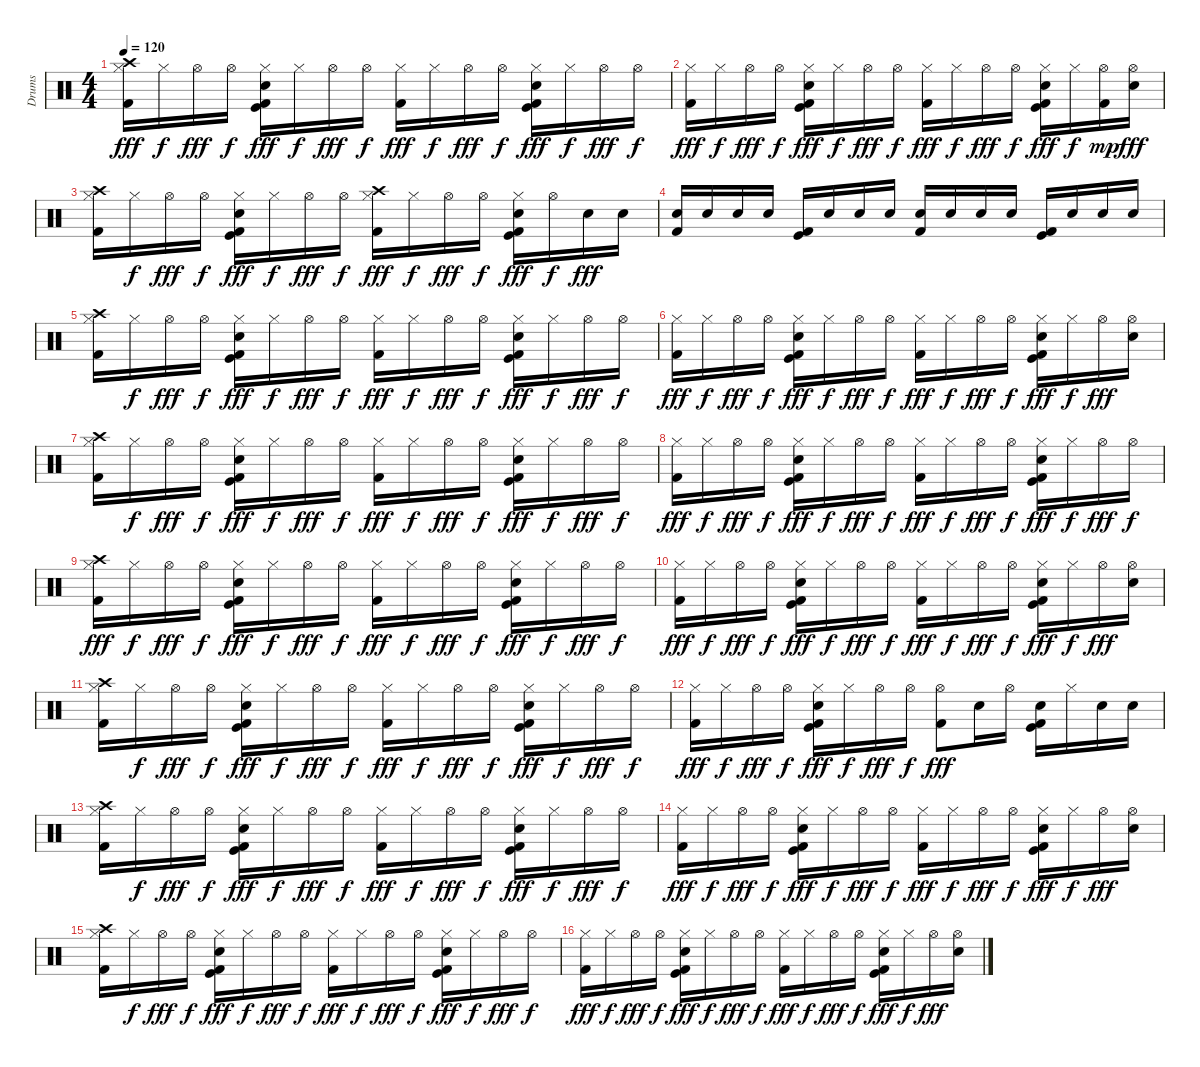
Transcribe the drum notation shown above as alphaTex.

\track ("Drums" "Drums") {instrument percussion}
\staff {score}
\articulation defaults
\ts (4 4)
\tempo 120
\clef neutral
\ks c
("Hi-Hat (closed)" "Crash high (hit)" "Kick (hit) 2").16{dy fff} "Hi-Hat (closed)".16{dy f} "Hi-Hat (open)".16{dy fff} "Hi-Hat (open)".16{dy f} ("Hi-Hat (closed)" "Electric Snare (hit)" "Kick (hit) 2" "Kick (hit)").16{dy fff} "Hi-Hat (closed)".16{dy f} "Hi-Hat (open)".16{dy fff} "Hi-Hat (open)".16{dy f} ("Hi-Hat (closed)" "Kick (hit) 2").16{dy fff} "Hi-Hat (closed)".16{dy f} "Hi-Hat (open)".16{dy fff} "Hi-Hat (open)".16{dy f} ("Hi-Hat (closed)" "Electric Snare (hit)" "Kick (hit)" "Kick (hit) 2").16{dy fff} "Hi-Hat (closed)".16{dy f} "Hi-Hat (open)".16{dy fff} "Hi-Hat (open)".16{dy f} |
("Hi-Hat (closed)" "Kick (hit) 2").16{dy fff} "Hi-Hat (closed)".16{dy f} "Hi-Hat (open)".16{dy fff} "Hi-Hat (open)".16{dy f} ("Hi-Hat (closed)" "Electric Snare (hit)" "Kick (hit) 2" "Kick (hit)").16{dy fff} "Hi-Hat (closed)".16{dy f} "Hi-Hat (open)".16{dy fff} "Hi-Hat (open)".16{dy f} ("Hi-Hat (closed)" "Kick (hit) 2").16{dy fff} "Hi-Hat (closed)".16{dy f} "Hi-Hat (open)".16{dy fff} "Hi-Hat (open)".16{dy f} ("Hi-Hat (closed)" "Electric Snare (hit)" "Kick (hit)" "Kick (hit) 2").16{dy fff} "Hi-Hat (closed)".16{dy f} ("Hi-Hat (open)" "Kick (hit) 2").16{dy mp} ("Hi-Hat (open)" "Electric Snare (hit)").16{dy fff} |
("Hi-Hat (closed)" "Crash high (hit)" "Kick (hit) 2").16 "Hi-Hat (closed)".16{dy f} "Hi-Hat (open)".16{dy fff} "Hi-Hat (open)".16{dy f} ("Hi-Hat (closed)" "Electric Snare (hit)" "Kick (hit) 2" "Kick (hit)").16{dy fff} "Hi-Hat (closed)".16{dy f} "Hi-Hat (open)".16{dy fff} "Hi-Hat (open)".16{dy f} ("Hi-Hat (closed)" "Crash high (hit)" "Kick (hit) 2").16{dy fff} "Hi-Hat (closed)".16{dy f} "Hi-Hat (open)".16{dy fff} "Hi-Hat (open)".16{dy f} ("Hi-Hat (closed)" "Electric Snare (hit)" "Kick (hit) 2" "Kick (hit)").16{dy fff} "Hi-Hat (open)".16{dy f} "Electric Snare (hit)".16{dy fff} "Electric Snare (hit)".16 |
("Electric Snare (hit)" "Kick (hit) 2").16 "Electric Snare (hit)".16 "Electric Snare (hit)".16 "Electric Snare (hit)".16 ("Kick (hit) 2" "Kick (hit)").16 "Electric Snare (hit)".16 "Electric Snare (hit)".16 "Electric Snare (hit)".16 ("Electric Snare (hit)" "Kick (hit) 2").16 "Electric Snare (hit)".16 "Electric Snare (hit)".16 "Electric Snare (hit)".16 ("Kick (hit) 2" "Kick (hit)").16 "Electric Snare (hit)".16 "Electric Snare (hit)".16 "Electric Snare (hit)".16 |
("Hi-Hat (closed)" "Crash high (hit)" "Kick (hit) 2").16 "Hi-Hat (closed)".16{dy f} "Hi-Hat (open)".16{dy fff} "Hi-Hat (open)".16{dy f} ("Hi-Hat (closed)" "Electric Snare (hit)" "Kick (hit)" "Kick (hit) 2").16{dy fff} "Hi-Hat (closed)".16{dy f} "Hi-Hat (open)".16{dy fff} "Hi-Hat (open)".16{dy f} ("Hi-Hat (closed)" "Kick (hit) 2").16{dy fff} "Hi-Hat (closed)".16{dy f} "Hi-Hat (open)".16{dy fff} "Hi-Hat (open)".16{dy f} ("Hi-Hat (closed)" "Electric Snare (hit)" "Kick (hit)" "Kick (hit) 2").16{dy fff} "Hi-Hat (closed)".16{dy f} "Hi-Hat (open)".16{dy fff} "Hi-Hat (open)".16{dy f} |
("Hi-Hat (closed)" "Kick (hit) 2").16{dy fff} "Hi-Hat (closed)".16{dy f} "Hi-Hat (open)".16{dy fff} "Hi-Hat (open)".16{dy f} ("Hi-Hat (closed)" "Electric Snare (hit)" "Kick (hit) 2" "Kick (hit)").16{dy fff} "Hi-Hat (closed)".16{dy f} "Hi-Hat (open)".16{dy fff} "Hi-Hat (open)".16{dy f} ("Hi-Hat (closed)" "Kick (hit) 2").16{dy fff} "Hi-Hat (closed)".16{dy f} "Hi-Hat (open)".16{dy fff} "Hi-Hat (open)".16{dy f} ("Hi-Hat (closed)" "Electric Snare (hit)" "Kick (hit)" "Kick (hit) 2").16{dy fff} "Hi-Hat (closed)".16{dy f} "Hi-Hat (open)".16{dy fff} ("Hi-Hat (open)" "Electric Snare (hit)").16 |
("Hi-Hat (closed)" "Crash high (hit)" "Kick (hit) 2").16 "Hi-Hat (closed)".16{dy f} "Hi-Hat (open)".16{dy fff} "Hi-Hat (open)".16{dy f} ("Hi-Hat (closed)" "Electric Snare (hit)" "Kick (hit)" "Kick (hit) 2").16{dy fff} "Hi-Hat (closed)".16{dy f} "Hi-Hat (open)".16{dy fff} "Hi-Hat (open)".16{dy f} ("Hi-Hat (closed)" "Kick (hit) 2").16{dy fff} "Hi-Hat (closed)".16{dy f} "Hi-Hat (open)".16{dy fff} "Hi-Hat (open)".16{dy f} ("Hi-Hat (closed)" "Electric Snare (hit)" "Kick (hit)" "Kick (hit) 2").16{dy fff} "Hi-Hat (closed)".16{dy f} "Hi-Hat (open)".16{dy fff} "Hi-Hat (open)".16{dy f} |
("Hi-Hat (closed)" "Kick (hit) 2").16{dy fff} "Hi-Hat (closed)".16{dy f} "Hi-Hat (open)".16{dy fff} "Hi-Hat (open)".16{dy f} ("Hi-Hat (closed)" "Electric Snare (hit)" "Kick (hit) 2" "Kick (hit)").16{dy fff} "Hi-Hat (closed)".16{dy f} "Hi-Hat (open)".16{dy fff} "Hi-Hat (open)".16{dy f} ("Hi-Hat (closed)" "Kick (hit) 2").16{dy fff} "Hi-Hat (closed)".16{dy f} "Hi-Hat (open)".16{dy fff} "Hi-Hat (open)".16{dy f} ("Hi-Hat (closed)" "Electric Snare (hit)" "Kick (hit)" "Kick (hit) 2").16{dy fff} "Hi-Hat (closed)".16{dy f} "Hi-Hat (open)".16{dy fff} "Hi-Hat (open)".16{dy f} |
("Hi-Hat (closed)" "Crash high (hit)" "Kick (hit) 2").16{dy fff} "Hi-Hat (closed)".16{dy f} "Hi-Hat (open)".16{dy fff} "Hi-Hat (open)".16{dy f} ("Hi-Hat (closed)" "Electric Snare (hit)" "Kick (hit)" "Kick (hit) 2").16{dy fff} "Hi-Hat (closed)".16{dy f} "Hi-Hat (open)".16{dy fff} "Hi-Hat (open)".16{dy f} ("Hi-Hat (closed)" "Kick (hit) 2").16{dy fff} "Hi-Hat (closed)".16{dy f} "Hi-Hat (open)".16{dy fff} "Hi-Hat (open)".16{dy f} ("Hi-Hat (closed)" "Electric Snare (hit)" "Kick (hit)" "Kick (hit) 2").16{dy fff} "Hi-Hat (closed)".16{dy f} "Hi-Hat (open)".16{dy fff} "Hi-Hat (open)".16{dy f} |
("Hi-Hat (closed)" "Kick (hit) 2").16{dy fff} "Hi-Hat (closed)".16{dy f} "Hi-Hat (open)".16{dy fff} "Hi-Hat (open)".16{dy f} ("Hi-Hat (closed)" "Electric Snare (hit)" "Kick (hit) 2" "Kick (hit)").16{dy fff} "Hi-Hat (closed)".16{dy f} "Hi-Hat (open)".16{dy fff} "Hi-Hat (open)".16{dy f} ("Hi-Hat (closed)" "Kick (hit) 2").16{dy fff} "Hi-Hat (closed)".16{dy f} "Hi-Hat (open)".16{dy fff} "Hi-Hat (open)".16{dy f} ("Hi-Hat (closed)" "Electric Snare (hit)" "Kick (hit)" "Kick (hit) 2").16{dy fff} "Hi-Hat (closed)".16{dy f} "Hi-Hat (open)".16{dy fff} ("Hi-Hat (open)" "Electric Snare (hit)").16 |
("Hi-Hat (closed)" "Crash high (hit)" "Kick (hit) 2").16 "Hi-Hat (closed)".16{dy f} "Hi-Hat (open)".16{dy fff} "Hi-Hat (open)".16{dy f} ("Hi-Hat (closed)" "Electric Snare (hit)" "Kick (hit)" "Kick (hit) 2").16{dy fff} "Hi-Hat (closed)".16{dy f} "Hi-Hat (open)".16{dy fff} "Hi-Hat (open)".16{dy f} ("Hi-Hat (closed)" "Kick (hit) 2").16{dy fff} "Hi-Hat (closed)".16{dy f} "Hi-Hat (open)".16{dy fff} "Hi-Hat (open)".16{dy f} ("Hi-Hat (closed)" "Electric Snare (hit)" "Kick (hit)" "Kick (hit) 2").16{dy fff} "Hi-Hat (closed)".16{dy f} "Hi-Hat (open)".16{dy fff} "Hi-Hat (open)".16{dy f} |
("Hi-Hat (closed)" "Kick (hit) 2").16{dy fff} "Hi-Hat (closed)".16{dy f} "Hi-Hat (open)".16{dy fff} "Hi-Hat (open)".16{dy f} ("Hi-Hat (closed)" "Electric Snare (hit)" "Kick (hit) 2" "Kick (hit)").16{dy fff} "Hi-Hat (closed)".16{dy f} "Hi-Hat (open)".16{dy fff} "Hi-Hat (open)".16{dy f} ("Hi-Hat (open)" "Kick (hit) 2").8{dy fff} "Electric Snare (hit)".16 "Hi-Hat (open)".16 ("Electric Snare (hit)" "Kick (hit)" "Kick (hit) 2").16 "Hi-Hat (closed)".16 "Electric Snare (hit)".16 "Electric Snare (hit)".16 |
("Hi-Hat (closed)" "Crash high (hit)" "Kick (hit) 2").16 "Hi-Hat (closed)".16{dy f} "Hi-Hat (open)".16{dy fff} "Hi-Hat (open)".16{dy f} ("Hi-Hat (closed)" "Electric Snare (hit)" "Kick (hit)" "Kick (hit) 2").16{dy fff} "Hi-Hat (closed)".16{dy f} "Hi-Hat (open)".16{dy fff} "Hi-Hat (open)".16{dy f} ("Hi-Hat (closed)" "Kick (hit) 2").16{dy fff} "Hi-Hat (closed)".16{dy f} "Hi-Hat (open)".16{dy fff} "Hi-Hat (open)".16{dy f} ("Hi-Hat (closed)" "Electric Snare (hit)" "Kick (hit)" "Kick (hit) 2").16{dy fff} "Hi-Hat (closed)".16{dy f} "Hi-Hat (open)".16{dy fff} "Hi-Hat (open)".16{dy f} |
("Hi-Hat (closed)" "Kick (hit) 2").16{dy fff} "Hi-Hat (closed)".16{dy f} "Hi-Hat (open)".16{dy fff} "Hi-Hat (open)".16{dy f} ("Hi-Hat (closed)" "Electric Snare (hit)" "Kick (hit) 2" "Kick (hit)").16{dy fff} "Hi-Hat (closed)".16{dy f} "Hi-Hat (open)".16{dy fff} "Hi-Hat (open)".16{dy f} ("Hi-Hat (closed)" "Kick (hit) 2").16{dy fff} "Hi-Hat (closed)".16{dy f} "Hi-Hat (open)".16{dy fff} "Hi-Hat (open)".16{dy f} ("Hi-Hat (closed)" "Electric Snare (hit)" "Kick (hit)" "Kick (hit) 2").16{dy fff} "Hi-Hat (closed)".16{dy f} "Hi-Hat (open)".16{dy fff} ("Hi-Hat (open)" "Electric Snare (hit)").16 |
("Hi-Hat (closed)" "Crash high (hit)" "Kick (hit) 2").16 "Hi-Hat (closed)".16{dy f} "Hi-Hat (open)".16{dy fff} "Hi-Hat (open)".16{dy f} ("Hi-Hat (closed)" "Electric Snare (hit)" "Kick (hit)" "Kick (hit) 2").16{dy fff} "Hi-Hat (closed)".16{dy f} "Hi-Hat (open)".16{dy fff} "Hi-Hat (open)".16{dy f} ("Hi-Hat (closed)" "Kick (hit) 2").16{dy fff} "Hi-Hat (closed)".16{dy f} "Hi-Hat (open)".16{dy fff} "Hi-Hat (open)".16{dy f} ("Hi-Hat (closed)" "Electric Snare (hit)" "Kick (hit)" "Kick (hit) 2").16{dy fff} "Hi-Hat (closed)".16{dy f} "Hi-Hat (open)".16{dy fff} "Hi-Hat (open)".16{dy f} |
("Hi-Hat (closed)" "Kick (hit) 2").16{dy fff} "Hi-Hat (closed)".16{dy f} "Hi-Hat (open)".16{dy fff} "Hi-Hat (open)".16{dy f} ("Hi-Hat (closed)" "Electric Snare (hit)" "Kick (hit) 2" "Kick (hit)").16{dy fff} "Hi-Hat (closed)".16{dy f} "Hi-Hat (open)".16{dy fff} "Hi-Hat (open)".16{dy f} ("Hi-Hat (closed)" "Kick (hit) 2").16{dy fff} "Hi-Hat (closed)".16{dy f} "Hi-Hat (open)".16{dy fff} "Hi-Hat (open)".16{dy f} ("Hi-Hat (closed)" "Electric Snare (hit)" "Kick (hit)" "Kick (hit) 2").16{dy fff} "Hi-Hat (closed)".16{dy f} "Hi-Hat (open)".16{dy fff} ("Hi-Hat (open)" "Electric Snare (hit)").16
